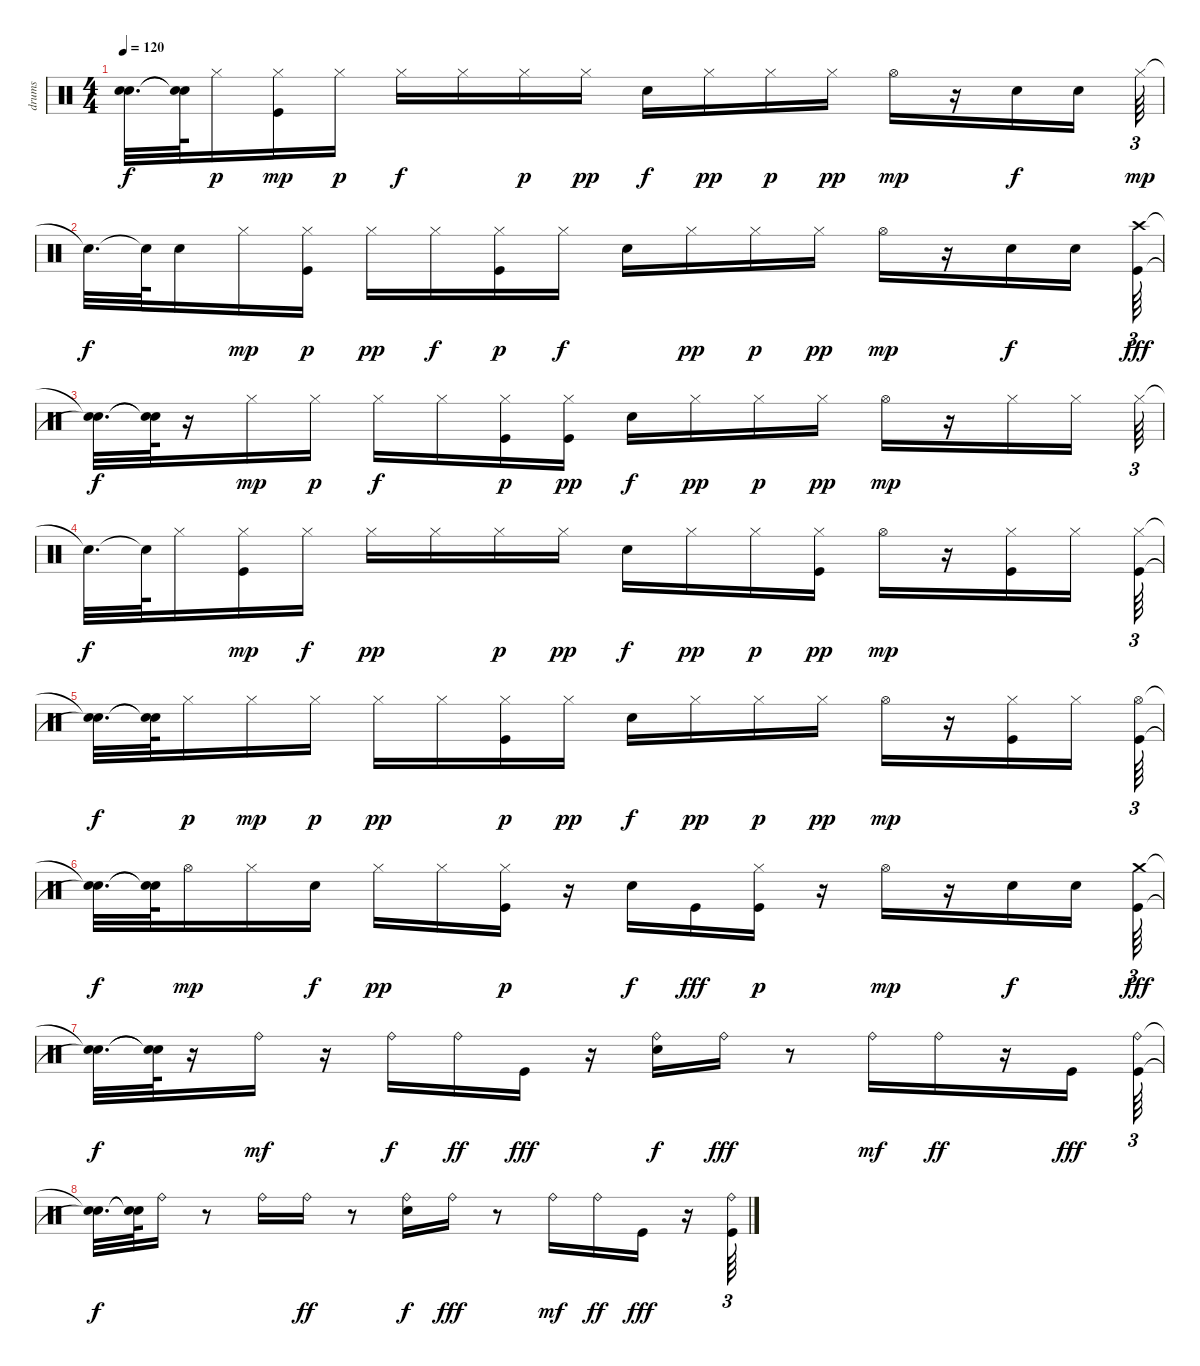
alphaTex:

\track ("drums" "drums") {instrument percussion}
\staff {score}
\articulation defaults
\ts (4 4)
\tempo 120
\clef neutral
\ks c
("Snare (hit)"{t} "Snare (hit)"{t}).32{d dy f} ("Snare (hit)"{t} "Snare (hit)"{t}).64 "Hi-Hat (closed)".16{dy p} ("Kick (hit)" "Hi-Hat (closed)").16{dy mp} "Hi-Hat (closed)".16{dy p} "Hi-Hat (closed)".16{dy f} "Hi-Hat (closed)".16 "Hi-Hat (closed)".16{dy p} "Hi-Hat (closed)".16{dy pp} "Snare (hit) 2".16{dy f} "Hi-Hat (closed)".16{dy pp} "Hi-Hat (closed)".16{dy p} "Hi-Hat (closed)".16{dy pp} "Hi-Hat (open)".16{dy mp} r.16 "Snare (hit) 2".16{dy f} "Snare (hit) 2".16 "Hi-Hat (closed)".64{tu (3 2) dy mp} |
"Snare (hit)"{t}.32{d dy f} "Snare (hit)"{t}.64 "Snare (hit) 2".16 "Hi-Hat (closed)".16{dy mp} ("Kick (hit)" "Hi-Hat (closed)").16{dy p} "Hi-Hat (closed)".16{dy pp} "Hi-Hat (closed)".16{dy f} ("Kick (hit)" "Hi-Hat (closed)").16{dy p} "Hi-Hat (closed)".16{dy f} "Snare (hit) 2".16 "Hi-Hat (closed)".16{dy pp} "Hi-Hat (closed)".16{dy p} "Hi-Hat (closed)".16{dy pp} "Hi-Hat (open)".16{dy mp} r.16 "Snare (hit) 2".16{dy f} "Snare (hit) 2".16 ("Kick (hit)" "Crash high (hit)").64{tu (3 2) dy fff} |
("Snare (hit)"{t} "Snare (hit)"{t}).32{d dy f} ("Snare (hit)"{t} "Snare (hit)"{t}).64 r.16 "Hi-Hat (closed)".16{dy mp} "Hi-Hat (closed)".16{dy p} "Hi-Hat (closed)".16{dy f} "Hi-Hat (closed)".16 ("Kick (hit)" "Hi-Hat (closed)").16{dy p} ("Kick (hit)" "Hi-Hat (closed)").16{dy pp} "Snare (hit) 2".16{dy f} "Hi-Hat (closed)".16{dy pp} "Hi-Hat (closed)".16{dy p} "Hi-Hat (closed)".16{dy pp} "Hi-Hat (open)".16{dy mp} r.16 "Hi-Hat (closed)".16 "Hi-Hat (closed)".16 "Hi-Hat (closed)".64{tu (3 2)} |
"Snare (hit)"{t}.32{d dy f} "Snare (hit)"{t}.64 "Hi-Hat (closed)".16 ("Kick (hit)" "Hi-Hat (closed)").16{dy mp} "Hi-Hat (closed)".16{dy f} "Hi-Hat (closed)".16{dy pp} "Hi-Hat (closed)".16 "Hi-Hat (closed)".16{dy p} "Hi-Hat (closed)".16{dy pp} "Snare (hit) 2".16{dy f} "Hi-Hat (closed)".16{dy pp} "Hi-Hat (closed)".16{dy p} ("Kick (hit)" "Hi-Hat (closed)").16{dy pp} "Hi-Hat (open)".16{dy mp} r.16 ("Kick (hit)" "Hi-Hat (closed)").16 "Hi-Hat (closed)".16 ("Kick (hit)" "Hi-Hat (closed)").64{tu (3 2)} |
("Snare (hit)"{t} "Snare (hit)"{t}).32{d dy f} ("Snare (hit)"{t} "Snare (hit)"{t}).64 "Hi-Hat (closed)".16{dy p} "Hi-Hat (closed)".16{dy mp} "Hi-Hat (closed)".16{dy p} "Hi-Hat (closed)".16{dy pp} "Hi-Hat (closed)".16 ("Kick (hit)" "Hi-Hat (closed)").16{dy p} "Hi-Hat (closed)".16{dy pp} "Snare (hit) 2".16{dy f} "Hi-Hat (closed)".16{dy pp} "Hi-Hat (closed)".16{dy p} "Hi-Hat (closed)".16{dy pp} "Hi-Hat (open)".16{dy mp} r.16 ("Kick (hit)" "Hi-Hat (closed)").16 "Hi-Hat (closed)".16 ("Kick (hit)" "Hi-Hat (open)").64{tu (3 2)} |
("Snare (hit)"{t} "Snare (hit)"{t}).32{d dy f} ("Snare (hit)"{t} "Snare (hit)"{t}).64 "Hi-Hat (open)".16{dy mp} "Hi-Hat (closed)".16 "Snare (hit) 2".16{dy f} "Hi-Hat (closed)".16{dy pp} "Hi-Hat (closed)".16 ("Kick (hit)" "Hi-Hat (closed)").16{dy p} r.16 "Snare (hit) 2".16{dy f} "Kick (hit)".16{dy fff} ("Kick (hit)" "Hi-Hat (closed)").16{dy p} r.16 "Hi-Hat (open)".16{dy mp} r.16 "Snare (hit) 2".16{dy f} "Snare (hit) 2".16 ("Kick (hit)" "Crash medium (hit)").64{tu (3 2) dy fff} |
("Snare (hit)"{t} "Snare (hit)"{t}).32{d dy f} ("Snare (hit)"{t} "Snare (hit)"{t}).64 r.16 "Ride (bell)".16{dy mf} r.16 "Ride (bell)".16{dy f} "Ride (bell)".16{dy ff} "Kick (hit)".16{dy fff} r.16 ("Snare (hit) 2" "Ride (bell)").16{dy f} "Ride (bell)".16{dy fff} r.8 "Ride (bell)".16{dy mf} "Ride (bell)".16{dy ff} r.16 "Kick (hit)".16{dy fff} ("Kick (hit)" "Ride (bell)").64{tu (3 2)} |
("Snare (hit)"{t} "Snare (hit)"{t}).32{d dy f} ("Snare (hit)"{t} "Snare (hit)"{t}).64 "Ride (bell)".16 r.8 "Ride (bell)".16 "Ride (bell)".16{dy ff} r.8 ("Snare (hit) 2" "Ride (bell)").16{dy f} "Ride (bell)".16{dy fff} r.8 "Ride (bell)".16{dy mf} "Ride (bell)".16{dy ff} "Kick (hit)".16{dy fff} r.16 ("Kick (hit)" "Ride (bell)").64{tu (3 2)}
